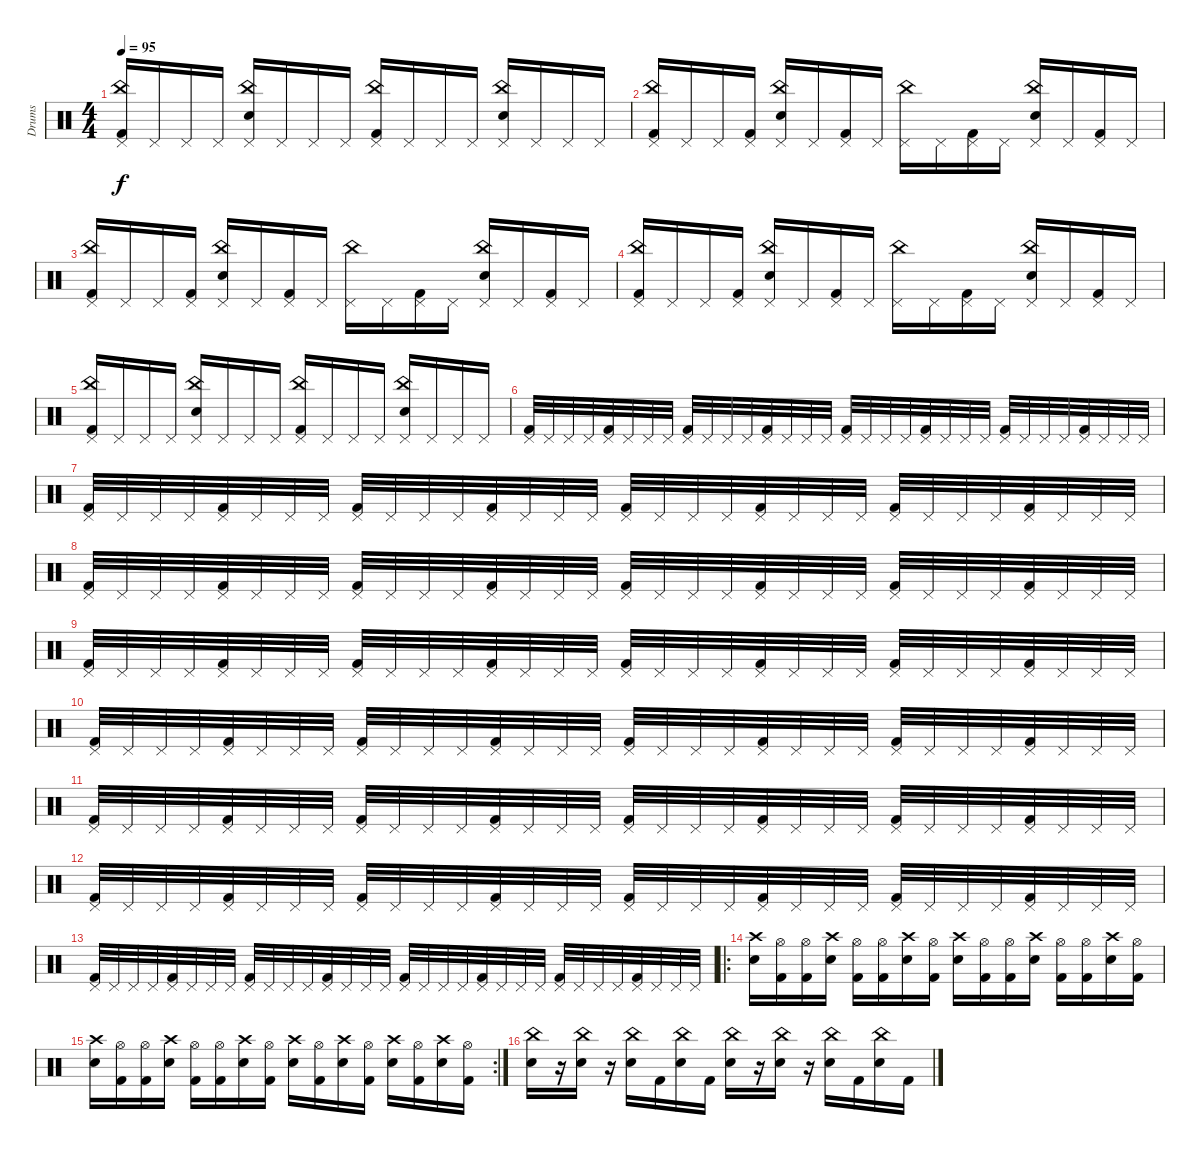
\track ("Drums" "Drums") {instrument percussion}
\staff {score}
\articulation defaults
\ts (4 4)
\tempo 95
\clef neutral
\ks c
("Pedal Hi-Hat (hit)" "China (hit)" "Kick (hit) 2").16{dy f} "Pedal Hi-Hat (hit)".16 "Pedal Hi-Hat (hit)".16 "Pedal Hi-Hat (hit)".16 ("Pedal Hi-Hat (hit)" "China (hit)" "Electric Snare (hit)").16 "Pedal Hi-Hat (hit)".16 "Pedal Hi-Hat (hit)".16 "Pedal Hi-Hat (hit)".16 ("Pedal Hi-Hat (hit)" "China (hit)" "Kick (hit) 2").16 "Pedal Hi-Hat (hit)".16 "Pedal Hi-Hat (hit)".16 "Pedal Hi-Hat (hit)".16 ("Pedal Hi-Hat (hit)" "China (hit)" "Electric Snare (hit)").16 "Pedal Hi-Hat (hit)".16 "Pedal Hi-Hat (hit)".16 "Pedal Hi-Hat (hit)".16 |
("Pedal Hi-Hat (hit)" "China (hit)" "Kick (hit) 2").16 "Pedal Hi-Hat (hit)".16 "Pedal Hi-Hat (hit)".16 ("Pedal Hi-Hat (hit)" "Kick (hit) 2").16 ("Pedal Hi-Hat (hit)" "China (hit)" "Electric Snare (hit)").16 "Pedal Hi-Hat (hit)".16 ("Pedal Hi-Hat (hit)" "Kick (hit) 2").16 "Pedal Hi-Hat (hit)".16 ("Pedal Hi-Hat (hit)" "China (hit)").16 "Pedal Hi-Hat (hit)".16 ("Pedal Hi-Hat (hit)" "Kick (hit) 2").16 "Pedal Hi-Hat (hit)".16 ("Pedal Hi-Hat (hit)" "China (hit)" "Electric Snare (hit)").16 "Pedal Hi-Hat (hit)".16 ("Pedal Hi-Hat (hit)" "Kick (hit) 2").16 "Pedal Hi-Hat (hit)".16 |
("Pedal Hi-Hat (hit)" "China (hit)" "Kick (hit) 2").16 "Pedal Hi-Hat (hit)".16 "Pedal Hi-Hat (hit)".16 ("Pedal Hi-Hat (hit)" "Kick (hit) 2").16 ("Pedal Hi-Hat (hit)" "China (hit)" "Electric Snare (hit)").16 "Pedal Hi-Hat (hit)".16 ("Pedal Hi-Hat (hit)" "Kick (hit) 2").16 "Pedal Hi-Hat (hit)".16 ("Pedal Hi-Hat (hit)" "China (hit)").16 "Pedal Hi-Hat (hit)".16 ("Pedal Hi-Hat (hit)" "Kick (hit) 2").16 "Pedal Hi-Hat (hit)".16 ("Pedal Hi-Hat (hit)" "China (hit)" "Electric Snare (hit)").16 "Pedal Hi-Hat (hit)".16 ("Pedal Hi-Hat (hit)" "Kick (hit) 2").16 "Pedal Hi-Hat (hit)".16 |
("Pedal Hi-Hat (hit)" "China (hit)" "Kick (hit) 2").16 "Pedal Hi-Hat (hit)".16 "Pedal Hi-Hat (hit)".16 ("Pedal Hi-Hat (hit)" "Kick (hit) 2").16 ("Pedal Hi-Hat (hit)" "China (hit)" "Electric Snare (hit)").16 "Pedal Hi-Hat (hit)".16 ("Pedal Hi-Hat (hit)" "Kick (hit) 2").16 "Pedal Hi-Hat (hit)".16 ("Pedal Hi-Hat (hit)" "China (hit)").16 "Pedal Hi-Hat (hit)".16 ("Pedal Hi-Hat (hit)" "Kick (hit) 2").16 "Pedal Hi-Hat (hit)".16 ("Pedal Hi-Hat (hit)" "China (hit)" "Electric Snare (hit)").16 "Pedal Hi-Hat (hit)".16 ("Pedal Hi-Hat (hit)" "Kick (hit) 2").16 "Pedal Hi-Hat (hit)".16 |
("Pedal Hi-Hat (hit)" "China (hit)" "Kick (hit) 2").16 "Pedal Hi-Hat (hit)".16 "Pedal Hi-Hat (hit)".16 "Pedal Hi-Hat (hit)".16 ("Pedal Hi-Hat (hit)" "China (hit)" "Electric Snare (hit)").16 "Pedal Hi-Hat (hit)".16 "Pedal Hi-Hat (hit)".16 "Pedal Hi-Hat (hit)".16 ("Pedal Hi-Hat (hit)" "China (hit)" "Kick (hit) 2").16 "Pedal Hi-Hat (hit)".16 "Pedal Hi-Hat (hit)".16 "Pedal Hi-Hat (hit)".16 ("Pedal Hi-Hat (hit)" "China (hit)" "Electric Snare (hit)").16 "Pedal Hi-Hat (hit)".16 "Pedal Hi-Hat (hit)".16 "Pedal Hi-Hat (hit)".16 |
("Pedal Hi-Hat (hit)" "Kick (hit) 2").32 "Pedal Hi-Hat (hit)".32 "Pedal Hi-Hat (hit)".32 "Pedal Hi-Hat (hit)".32 ("Pedal Hi-Hat (hit)" "Kick (hit) 2").32 "Pedal Hi-Hat (hit)".32 "Pedal Hi-Hat (hit)".32 "Pedal Hi-Hat (hit)".32 ("Pedal Hi-Hat (hit)" "Kick (hit) 2").32 "Pedal Hi-Hat (hit)".32 "Pedal Hi-Hat (hit)".32 "Pedal Hi-Hat (hit)".32 ("Pedal Hi-Hat (hit)" "Kick (hit) 2").32 "Pedal Hi-Hat (hit)".32 "Pedal Hi-Hat (hit)".32 "Pedal Hi-Hat (hit)".32 ("Pedal Hi-Hat (hit)" "Kick (hit) 2").32 "Pedal Hi-Hat (hit)".32 "Pedal Hi-Hat (hit)".32 "Pedal Hi-Hat (hit)".32 ("Pedal Hi-Hat (hit)" "Kick (hit) 2").32 "Pedal Hi-Hat (hit)".32 "Pedal Hi-Hat (hit)".32 "Pedal Hi-Hat (hit)".32 ("Pedal Hi-Hat (hit)" "Kick (hit) 2").32 "Pedal Hi-Hat (hit)".32 "Pedal Hi-Hat (hit)".32 "Pedal Hi-Hat (hit)".32 ("Pedal Hi-Hat (hit)" "Kick (hit) 2").32 "Pedal Hi-Hat (hit)".32 "Pedal Hi-Hat (hit)".32 "Pedal Hi-Hat (hit)".32 |
("Pedal Hi-Hat (hit)" "Kick (hit) 2").32 "Pedal Hi-Hat (hit)".32 "Pedal Hi-Hat (hit)".32 "Pedal Hi-Hat (hit)".32 ("Pedal Hi-Hat (hit)" "Kick (hit) 2").32 "Pedal Hi-Hat (hit)".32 "Pedal Hi-Hat (hit)".32 "Pedal Hi-Hat (hit)".32 ("Pedal Hi-Hat (hit)" "Kick (hit) 2").32 "Pedal Hi-Hat (hit)".32 "Pedal Hi-Hat (hit)".32 "Pedal Hi-Hat (hit)".32 ("Pedal Hi-Hat (hit)" "Kick (hit) 2").32 "Pedal Hi-Hat (hit)".32 "Pedal Hi-Hat (hit)".32 "Pedal Hi-Hat (hit)".32 ("Pedal Hi-Hat (hit)" "Kick (hit) 2").32 "Pedal Hi-Hat (hit)".32 "Pedal Hi-Hat (hit)".32 "Pedal Hi-Hat (hit)".32 ("Pedal Hi-Hat (hit)" "Kick (hit) 2").32 "Pedal Hi-Hat (hit)".32 "Pedal Hi-Hat (hit)".32 "Pedal Hi-Hat (hit)".32 ("Pedal Hi-Hat (hit)" "Kick (hit) 2").32 "Pedal Hi-Hat (hit)".32 "Pedal Hi-Hat (hit)".32 "Pedal Hi-Hat (hit)".32 ("Pedal Hi-Hat (hit)" "Kick (hit) 2").32 "Pedal Hi-Hat (hit)".32 "Pedal Hi-Hat (hit)".32 "Pedal Hi-Hat (hit)".32 |
("Pedal Hi-Hat (hit)" "Kick (hit) 2").32 "Pedal Hi-Hat (hit)".32 "Pedal Hi-Hat (hit)".32 "Pedal Hi-Hat (hit)".32 ("Pedal Hi-Hat (hit)" "Kick (hit) 2").32 "Pedal Hi-Hat (hit)".32 "Pedal Hi-Hat (hit)".32 "Pedal Hi-Hat (hit)".32 ("Pedal Hi-Hat (hit)" "Kick (hit) 2").32 "Pedal Hi-Hat (hit)".32 "Pedal Hi-Hat (hit)".32 "Pedal Hi-Hat (hit)".32 ("Pedal Hi-Hat (hit)" "Kick (hit) 2").32 "Pedal Hi-Hat (hit)".32 "Pedal Hi-Hat (hit)".32 "Pedal Hi-Hat (hit)".32 ("Pedal Hi-Hat (hit)" "Kick (hit) 2").32 "Pedal Hi-Hat (hit)".32 "Pedal Hi-Hat (hit)".32 "Pedal Hi-Hat (hit)".32 ("Pedal Hi-Hat (hit)" "Kick (hit) 2").32 "Pedal Hi-Hat (hit)".32 "Pedal Hi-Hat (hit)".32 "Pedal Hi-Hat (hit)".32 ("Pedal Hi-Hat (hit)" "Kick (hit) 2").32 "Pedal Hi-Hat (hit)".32 "Pedal Hi-Hat (hit)".32 "Pedal Hi-Hat (hit)".32 ("Pedal Hi-Hat (hit)" "Kick (hit) 2").32 "Pedal Hi-Hat (hit)".32 "Pedal Hi-Hat (hit)".32 "Pedal Hi-Hat (hit)".32 |
("Pedal Hi-Hat (hit)" "Kick (hit) 2").32 "Pedal Hi-Hat (hit)".32 "Pedal Hi-Hat (hit)".32 "Pedal Hi-Hat (hit)".32 ("Pedal Hi-Hat (hit)" "Kick (hit) 2").32 "Pedal Hi-Hat (hit)".32 "Pedal Hi-Hat (hit)".32 "Pedal Hi-Hat (hit)".32 ("Pedal Hi-Hat (hit)" "Kick (hit) 2").32 "Pedal Hi-Hat (hit)".32 "Pedal Hi-Hat (hit)".32 "Pedal Hi-Hat (hit)".32 ("Pedal Hi-Hat (hit)" "Kick (hit) 2").32 "Pedal Hi-Hat (hit)".32 "Pedal Hi-Hat (hit)".32 "Pedal Hi-Hat (hit)".32 ("Pedal Hi-Hat (hit)" "Kick (hit) 2").32 "Pedal Hi-Hat (hit)".32 "Pedal Hi-Hat (hit)".32 "Pedal Hi-Hat (hit)".32 ("Pedal Hi-Hat (hit)" "Kick (hit) 2").32 "Pedal Hi-Hat (hit)".32 "Pedal Hi-Hat (hit)".32 "Pedal Hi-Hat (hit)".32 ("Pedal Hi-Hat (hit)" "Kick (hit) 2").32 "Pedal Hi-Hat (hit)".32 "Pedal Hi-Hat (hit)".32 "Pedal Hi-Hat (hit)".32 ("Pedal Hi-Hat (hit)" "Kick (hit) 2").32 "Pedal Hi-Hat (hit)".32 "Pedal Hi-Hat (hit)".32 "Pedal Hi-Hat (hit)".32 |
("Pedal Hi-Hat (hit)" "Kick (hit) 2").32 "Pedal Hi-Hat (hit)".32 "Pedal Hi-Hat (hit)".32 "Pedal Hi-Hat (hit)".32 ("Pedal Hi-Hat (hit)" "Kick (hit) 2").32 "Pedal Hi-Hat (hit)".32 "Pedal Hi-Hat (hit)".32 "Pedal Hi-Hat (hit)".32 ("Pedal Hi-Hat (hit)" "Kick (hit) 2").32 "Pedal Hi-Hat (hit)".32 "Pedal Hi-Hat (hit)".32 "Pedal Hi-Hat (hit)".32 ("Pedal Hi-Hat (hit)" "Kick (hit) 2").32 "Pedal Hi-Hat (hit)".32 "Pedal Hi-Hat (hit)".32 "Pedal Hi-Hat (hit)".32 ("Pedal Hi-Hat (hit)" "Kick (hit) 2").32 "Pedal Hi-Hat (hit)".32 "Pedal Hi-Hat (hit)".32 "Pedal Hi-Hat (hit)".32 ("Pedal Hi-Hat (hit)" "Kick (hit) 2").32 "Pedal Hi-Hat (hit)".32 "Pedal Hi-Hat (hit)".32 "Pedal Hi-Hat (hit)".32 ("Pedal Hi-Hat (hit)" "Kick (hit) 2").32 "Pedal Hi-Hat (hit)".32 "Pedal Hi-Hat (hit)".32 "Pedal Hi-Hat (hit)".32 ("Pedal Hi-Hat (hit)" "Kick (hit) 2").32 "Pedal Hi-Hat (hit)".32 "Pedal Hi-Hat (hit)".32 "Pedal Hi-Hat (hit)".32 |
("Pedal Hi-Hat (hit)" "Kick (hit) 2").32 "Pedal Hi-Hat (hit)".32 "Pedal Hi-Hat (hit)".32 "Pedal Hi-Hat (hit)".32 ("Pedal Hi-Hat (hit)" "Kick (hit) 2").32 "Pedal Hi-Hat (hit)".32 "Pedal Hi-Hat (hit)".32 "Pedal Hi-Hat (hit)".32 ("Pedal Hi-Hat (hit)" "Kick (hit) 2").32 "Pedal Hi-Hat (hit)".32 "Pedal Hi-Hat (hit)".32 "Pedal Hi-Hat (hit)".32 ("Pedal Hi-Hat (hit)" "Kick (hit) 2").32 "Pedal Hi-Hat (hit)".32 "Pedal Hi-Hat (hit)".32 "Pedal Hi-Hat (hit)".32 ("Pedal Hi-Hat (hit)" "Kick (hit) 2").32 "Pedal Hi-Hat (hit)".32 "Pedal Hi-Hat (hit)".32 "Pedal Hi-Hat (hit)".32 ("Pedal Hi-Hat (hit)" "Kick (hit) 2").32 "Pedal Hi-Hat (hit)".32 "Pedal Hi-Hat (hit)".32 "Pedal Hi-Hat (hit)".32 ("Pedal Hi-Hat (hit)" "Kick (hit) 2").32 "Pedal Hi-Hat (hit)".32 "Pedal Hi-Hat (hit)".32 "Pedal Hi-Hat (hit)".32 ("Pedal Hi-Hat (hit)" "Kick (hit) 2").32 "Pedal Hi-Hat (hit)".32 "Pedal Hi-Hat (hit)".32 "Pedal Hi-Hat (hit)".32 |
("Pedal Hi-Hat (hit)" "Kick (hit) 2").32 "Pedal Hi-Hat (hit)".32 "Pedal Hi-Hat (hit)".32 "Pedal Hi-Hat (hit)".32 ("Pedal Hi-Hat (hit)" "Kick (hit) 2").32 "Pedal Hi-Hat (hit)".32 "Pedal Hi-Hat (hit)".32 "Pedal Hi-Hat (hit)".32 ("Pedal Hi-Hat (hit)" "Kick (hit) 2").32 "Pedal Hi-Hat (hit)".32 "Pedal Hi-Hat (hit)".32 "Pedal Hi-Hat (hit)".32 ("Pedal Hi-Hat (hit)" "Kick (hit) 2").32 "Pedal Hi-Hat (hit)".32 "Pedal Hi-Hat (hit)".32 "Pedal Hi-Hat (hit)".32 ("Pedal Hi-Hat (hit)" "Kick (hit) 2").32 "Pedal Hi-Hat (hit)".32 "Pedal Hi-Hat (hit)".32 "Pedal Hi-Hat (hit)".32 ("Pedal Hi-Hat (hit)" "Kick (hit) 2").32 "Pedal Hi-Hat (hit)".32 "Pedal Hi-Hat (hit)".32 "Pedal Hi-Hat (hit)".32 ("Pedal Hi-Hat (hit)" "Kick (hit) 2").32 "Pedal Hi-Hat (hit)".32 "Pedal Hi-Hat (hit)".32 "Pedal Hi-Hat (hit)".32 ("Pedal Hi-Hat (hit)" "Kick (hit) 2").32 "Pedal Hi-Hat (hit)".32 "Pedal Hi-Hat (hit)".32 "Pedal Hi-Hat (hit)".32 |
("Pedal Hi-Hat (hit)" "Kick (hit) 2").32 "Pedal Hi-Hat (hit)".32 "Pedal Hi-Hat (hit)".32 "Pedal Hi-Hat (hit)".32 ("Pedal Hi-Hat (hit)" "Kick (hit) 2").32 "Pedal Hi-Hat (hit)".32 "Pedal Hi-Hat (hit)".32 "Pedal Hi-Hat (hit)".32 ("Pedal Hi-Hat (hit)" "Kick (hit) 2").32 "Pedal Hi-Hat (hit)".32 "Pedal Hi-Hat (hit)".32 "Pedal Hi-Hat (hit)".32 ("Pedal Hi-Hat (hit)" "Kick (hit) 2").32 "Pedal Hi-Hat (hit)".32 "Pedal Hi-Hat (hit)".32 "Pedal Hi-Hat (hit)".32 ("Pedal Hi-Hat (hit)" "Kick (hit) 2").32 "Pedal Hi-Hat (hit)".32 "Pedal Hi-Hat (hit)".32 "Pedal Hi-Hat (hit)".32 ("Pedal Hi-Hat (hit)" "Kick (hit) 2").32 "Pedal Hi-Hat (hit)".32 "Pedal Hi-Hat (hit)".32 "Pedal Hi-Hat (hit)".32 ("Pedal Hi-Hat (hit)" "Kick (hit) 2").32 "Pedal Hi-Hat (hit)".32 "Pedal Hi-Hat (hit)".32 "Pedal Hi-Hat (hit)".32 ("Pedal Hi-Hat (hit)" "Kick (hit) 2").32 "Pedal Hi-Hat (hit)".32 "Pedal Hi-Hat (hit)".32 "Pedal Hi-Hat (hit)".32 |
\ro
("Crash high (hit)" "Electric Snare (hit)").16 ("Hi-Hat (open)" "Kick (hit) 2").16 ("Hi-Hat (open)" "Kick (hit) 2").16 ("Crash high (hit)" "Electric Snare (hit)").16 ("Hi-Hat (open)" "Kick (hit) 2").16 ("Hi-Hat (open)" "Kick (hit) 2").16 ("Crash high (hit)" "Electric Snare (hit)").16 ("Hi-Hat (open)" "Kick (hit) 2").16 ("Crash high (hit)" "Electric Snare (hit)").16 ("Hi-Hat (open)" "Kick (hit) 2").16 ("Hi-Hat (open)" "Kick (hit) 2").16 ("Crash high (hit)" "Electric Snare (hit)").16 ("Hi-Hat (open)" "Kick (hit) 2").16 ("Hi-Hat (open)" "Kick (hit) 2").16 ("Crash high (hit)" "Electric Snare (hit)").16 ("Hi-Hat (open)" "Kick (hit) 2").16 |
\rc 2
("Crash high (hit)" "Electric Snare (hit)").16 ("Hi-Hat (open)" "Kick (hit) 2").16 ("Hi-Hat (open)" "Kick (hit) 2").16 ("Crash high (hit)" "Electric Snare (hit)").16 ("Hi-Hat (open)" "Kick (hit) 2").16 ("Hi-Hat (open)" "Kick (hit) 2").16 ("Crash high (hit)" "Electric Snare (hit)").16 ("Hi-Hat (open)" "Kick (hit) 2").16 ("Crash high (hit)" "Electric Snare (hit)").16 ("Hi-Hat (open)" "Kick (hit) 2").16 ("Crash high (hit)" "Electric Snare (hit)").16 ("Hi-Hat (open)" "Kick (hit) 2").16 ("Crash high (hit)" "Electric Snare (hit)").16 ("Hi-Hat (open)" "Kick (hit) 2").16 ("Crash high (hit)" "Electric Snare (hit)").16 ("Hi-Hat (open)" "Kick (hit) 2").16 |
("China (hit)" "Electric Snare (hit)").16 r.16 ("China (hit)" "Electric Snare (hit)").16 r.16 ("China (hit)" "Electric Snare (hit)").16 "Kick (hit) 2".16 ("China (hit)" "Electric Snare (hit)").16 "Kick (hit) 2".16 ("China (hit)" "Electric Snare (hit)").16 r.16 ("China (hit)" "Electric Snare (hit)").16 r.16 ("China (hit)" "Electric Snare (hit)").16 "Kick (hit) 2".16 ("China (hit)" "Electric Snare (hit)").16 "Kick (hit) 2".16
